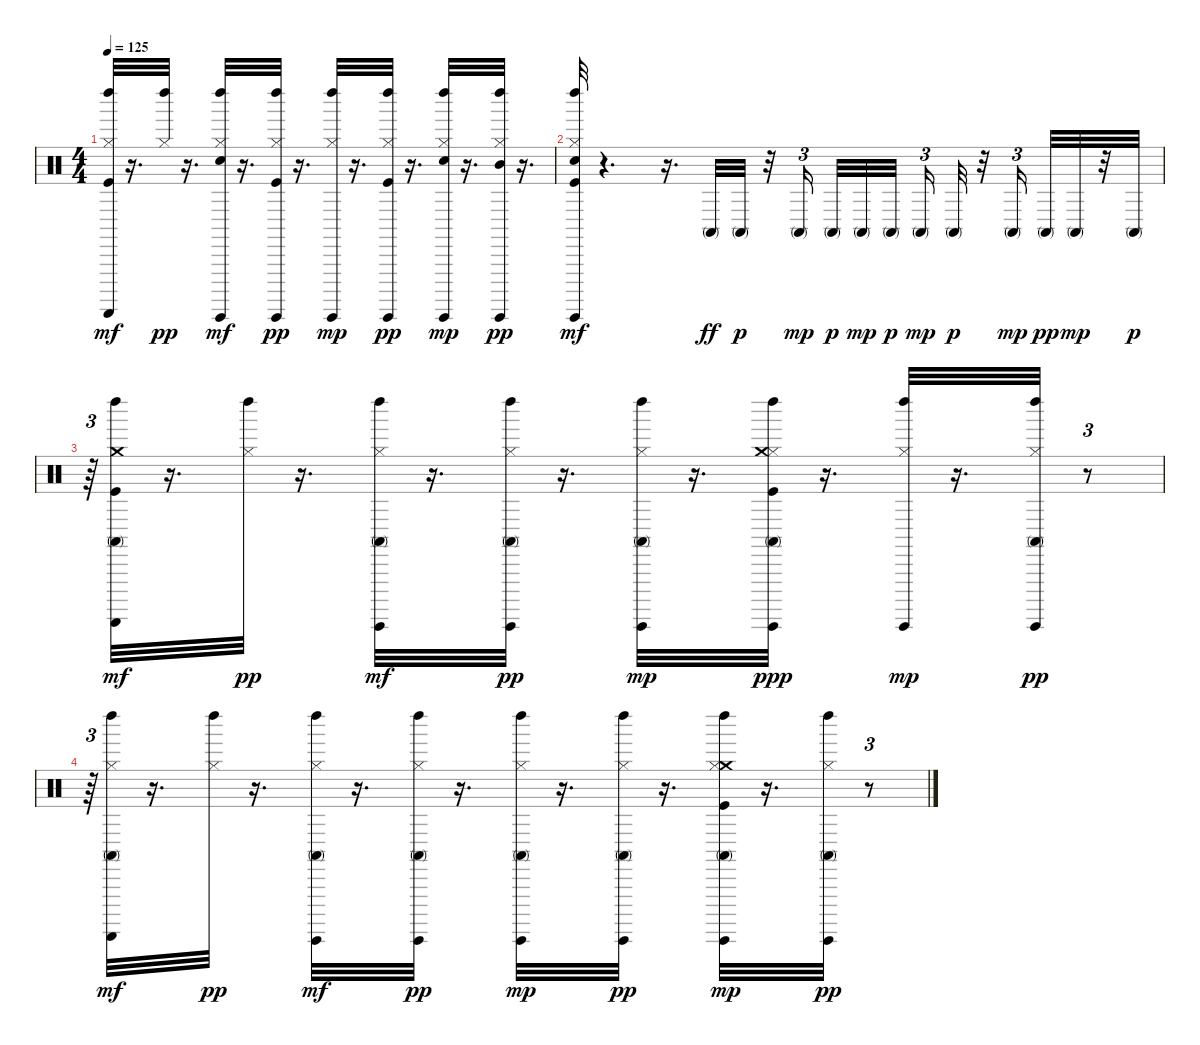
\track "" {instrument percussion}
\staff {score}
\articulation defaults
\ts (4 4)
\tempo 125
\clef neutral
\ks c
("Left Maraca (hit)" "Hi-Hat (closed)" "Kick (hit)" "Guiro (scrap-return)").32{dy mf} r.16{d} ("Left Maraca (hit)" "Hi-Hat (closed)").32{dy pp} r.16{d} ("Electric Snare (hit)" "Hi-Hat (closed)" "Left Maraca (hit)" "Guiro (hit)").32{dy mf} r.16{d} ("Hi-Hat (closed)" "Left Maraca (hit)" "Kick (hit)" "Guiro (hit)").32{dy pp} r.16{d} ("Hi-Hat (closed)" "Left Maraca (hit)" "Guiro (hit)").32{dy mp} r.16{d} ("Left Maraca (hit)" "Kick (hit)" "Hi-Hat (closed)" "Guiro (hit)").32{dy pp} r.16{d} ("Electric Snare (hit)" "Left Maraca (hit)" "Hi-Hat (closed)" "Guiro (hit)").32{dy mp} r.16{d} ("Left Maraca (hit)" "Hi-Hat (closed)" "Mid Tom (hit)" "Guiro (hit)").32{dy pp} r.16{d} |
("Electric Snare (hit)" "Hi-Hat (closed)" "Kick (hit)" "Guiro (hit)" "Left Maraca (hit)").32{dy mf} r.4{d} r.16{d} "Conga high (mute)".32{dy ff} "Conga high (mute)".32{dy p} r.32 "Conga high (mute)".16{tu (3 2) dy mp beam splitsecondary} "Conga high (mute)".32{dy p} "Conga high (mute)".32{dy mp} "Conga high (mute)".32{dy p beam splitsecondary} "Conga high (mute)".16{tu (3 2) dy mp} "Conga high (mute)".32{dy p} r.32 "Conga high (mute)".16{tu (3 2) dy mp beam splitsecondary} "Conga high (mute)".32{dy pp} "Conga high (mute)".32{dy mp} r.32 "Conga high (mute)".32{dy p} |
r.64{tu (3 2)} ("Conga high (mute)" "Crash medium (hit)" "Left Maraca (hit)" "Kick (hit)" "Guiro (scrap-return)").32{dy mf} r.16{d} ("Left Maraca (hit)" "Hi-Hat (closed)").32{dy pp} r.16{d} ("Left Maraca (hit)" "Conga high (mute)" "Hi-Hat (closed)" "Guiro (hit)").32{dy mf} r.16{d} ("Hi-Hat (closed)" "Left Maraca (hit)" "Conga high (mute)" "Guiro (hit)").32{dy pp} r.16{d} ("Hi-Hat (closed)" "Left Maraca (hit)" "Conga high (mute)" "Guiro (hit)").32{dy mp} r.16{d} ("Hi-Hat (closed)" "Conga high (mute)" "Left Maraca (hit)" "Crash medium (hit)" "Kick (hit)" "Guiro (hit)").32{dy ppp} r.16{d} ("Left Maraca (hit)" "Hi-Hat (closed)" "Guiro (hit)").32{dy mp} r.16{d} ("Conga high (mute)" "Left Maraca (hit)" "Hi-Hat (closed)" "Guiro (hit)").32{dy pp} r.8{tu (3 2)} |
r.64{tu (3 2)} ("Left Maraca (hit)" "Conga high (mute)" "Hi-Hat (closed)" "Guiro (scrap-return)").32{dy mf} r.16{d} ("Hi-Hat (closed)" "Left Maraca (hit)").32{dy pp} r.16{d} ("Conga high (mute)" "Left Maraca (hit)" "Hi-Hat (closed)" "Guiro (hit)").32{dy mf} r.16{d} ("Left Maraca (hit)" "Conga high (mute)" "Hi-Hat (closed)" "Guiro (hit)").32{dy pp} r.16{d} ("Conga high (mute)" "Hi-Hat (closed)" "Left Maraca (hit)" "Guiro (hit)").32{dy mp} r.16{d} ("Conga high (mute)" "Hi-Hat (closed)" "Left Maraca (hit)" "Guiro (hit)").32{dy pp} r.16{d} ("Left Maraca (hit)" "Crash medium (hit)" "Hi-Hat (closed)" "Conga high (mute)" "Kick (hit)" "Guiro (hit)").32{dy mp} r.16{d} ("Conga high (mute)" "Left Maraca (hit)" "Hi-Hat (closed)" "Guiro (hit)").32{dy pp} r.8{tu (3 2)}
